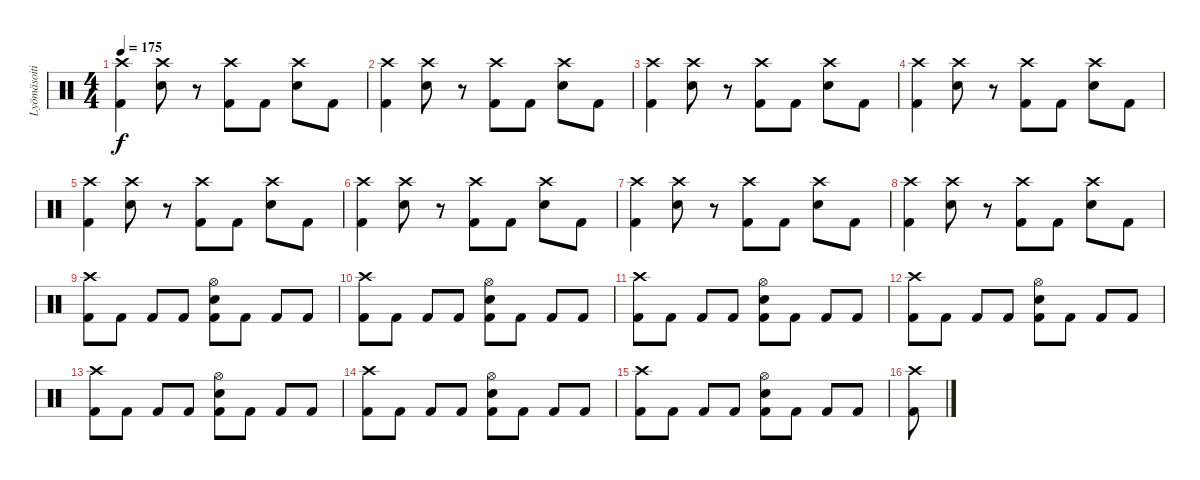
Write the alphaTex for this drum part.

\track ("Lyömäsoitin" "Lyömäsoiti") {instrument percussion}
\staff {score}
\articulation defaults
\ts (4 4)
\tempo 175
\clef neutral
\ks c
("Kick (hit) 2" "Crash high (hit)").4{dy f} ("Electric Snare (hit)" "Crash high (hit)").8 r.8 ("Kick (hit) 2" "Crash high (hit)").8 "Kick (hit) 2".8 ("Electric Snare (hit)" "Crash high (hit)").8 "Kick (hit) 2".8 |
("Kick (hit) 2" "Crash high (hit)").4 ("Electric Snare (hit)" "Crash high (hit)").8 r.8 ("Kick (hit) 2" "Crash high (hit)").8 "Kick (hit) 2".8 ("Electric Snare (hit)" "Crash high (hit)").8 "Kick (hit) 2".8 |
("Kick (hit) 2" "Crash high (hit)").4 ("Electric Snare (hit)" "Crash high (hit)").8 r.8 ("Kick (hit) 2" "Crash high (hit)").8 "Kick (hit) 2".8 ("Electric Snare (hit)" "Crash high (hit)").8 "Kick (hit) 2".8 |
("Kick (hit) 2" "Crash high (hit)").4 ("Electric Snare (hit)" "Crash high (hit)").8 r.8 ("Kick (hit) 2" "Crash high (hit)").8 "Kick (hit) 2".8 ("Electric Snare (hit)" "Crash high (hit)").8 "Kick (hit) 2".8 |
("Kick (hit) 2" "Crash high (hit)").4 ("Electric Snare (hit)" "Crash high (hit)").8 r.8 ("Kick (hit) 2" "Crash high (hit)").8 "Kick (hit) 2".8 ("Electric Snare (hit)" "Crash high (hit)").8 "Kick (hit) 2".8 |
("Kick (hit) 2" "Crash high (hit)").4 ("Electric Snare (hit)" "Crash high (hit)").8 r.8 ("Kick (hit) 2" "Crash high (hit)").8 "Kick (hit) 2".8 ("Electric Snare (hit)" "Crash high (hit)").8 "Kick (hit) 2".8 |
("Kick (hit) 2" "Crash high (hit)").4 ("Electric Snare (hit)" "Crash high (hit)").8 r.8 ("Kick (hit) 2" "Crash high (hit)").8 "Kick (hit) 2".8 ("Electric Snare (hit)" "Crash high (hit)").8 "Kick (hit) 2".8 |
("Kick (hit) 2" "Crash high (hit)").4 ("Electric Snare (hit)" "Crash high (hit)").8 r.8 ("Kick (hit) 2" "Crash high (hit)").8 "Kick (hit) 2".8 ("Electric Snare (hit)" "Crash high (hit)").8 "Kick (hit) 2".8 |
("Kick (hit) 2" "Crash high (hit)").8 "Kick (hit) 2".8 "Kick (hit) 2".8 "Kick (hit) 2".8 ("Kick (hit) 2" "Electric Snare (hit)" "Hi-Hat (open)").8 "Kick (hit) 2".8 "Kick (hit) 2".8 "Kick (hit) 2".8 |
("Kick (hit) 2" "Crash high (hit)").8 "Kick (hit) 2".8 "Kick (hit) 2".8 "Kick (hit) 2".8 ("Kick (hit) 2" "Electric Snare (hit)" "Hi-Hat (open)").8 "Kick (hit) 2".8 "Kick (hit) 2".8 "Kick (hit) 2".8 |
("Kick (hit) 2" "Crash high (hit)").8 "Kick (hit) 2".8 "Kick (hit) 2".8 "Kick (hit) 2".8 ("Kick (hit) 2" "Electric Snare (hit)" "Hi-Hat (open)").8 "Kick (hit) 2".8 "Kick (hit) 2".8 "Kick (hit) 2".8 |
("Kick (hit) 2" "Crash high (hit)").8 "Kick (hit) 2".8 "Kick (hit) 2".8 "Kick (hit) 2".8 ("Kick (hit) 2" "Electric Snare (hit)" "Hi-Hat (open)").8 "Kick (hit) 2".8 "Kick (hit) 2".8 "Kick (hit) 2".8 |
("Kick (hit) 2" "Crash high (hit)").8 "Kick (hit) 2".8 "Kick (hit) 2".8 "Kick (hit) 2".8 ("Kick (hit) 2" "Electric Snare (hit)" "Hi-Hat (open)").8 "Kick (hit) 2".8 "Kick (hit) 2".8 "Kick (hit) 2".8 |
("Kick (hit) 2" "Crash high (hit)").8 "Kick (hit) 2".8 "Kick (hit) 2".8 "Kick (hit) 2".8 ("Kick (hit) 2" "Electric Snare (hit)" "Hi-Hat (open)").8 "Kick (hit) 2".8 "Kick (hit) 2".8 "Kick (hit) 2".8 |
("Kick (hit) 2" "Crash high (hit)").8 "Kick (hit) 2".8 "Kick (hit) 2".8 "Kick (hit) 2".8 ("Kick (hit) 2" "Electric Snare (hit)" "Hi-Hat (open)").8 "Kick (hit) 2".8 "Kick (hit) 2".8 "Kick (hit) 2".8 |
("Kick (hit) 2" "Crash high (hit)").8
